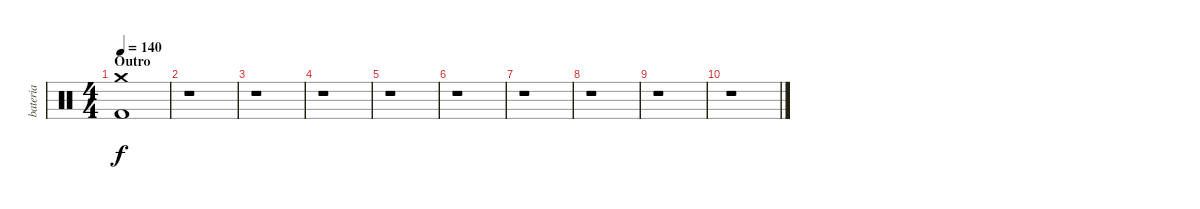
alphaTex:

\track ("bateria" "bateria") {instrument percussion}
\staff {score}
\articulation defaults
\ts (4 4)
\section ("" "Outro")
\tempo 140
\clef neutral
\ks c
("Crash medium (hit)" "Kick (hit) 2").1{dy f} |
r.1 |
r.1 |
r.1 |
r.1 |
r.1 |
r.1 |
r.1 |
r.1 |
r.1
